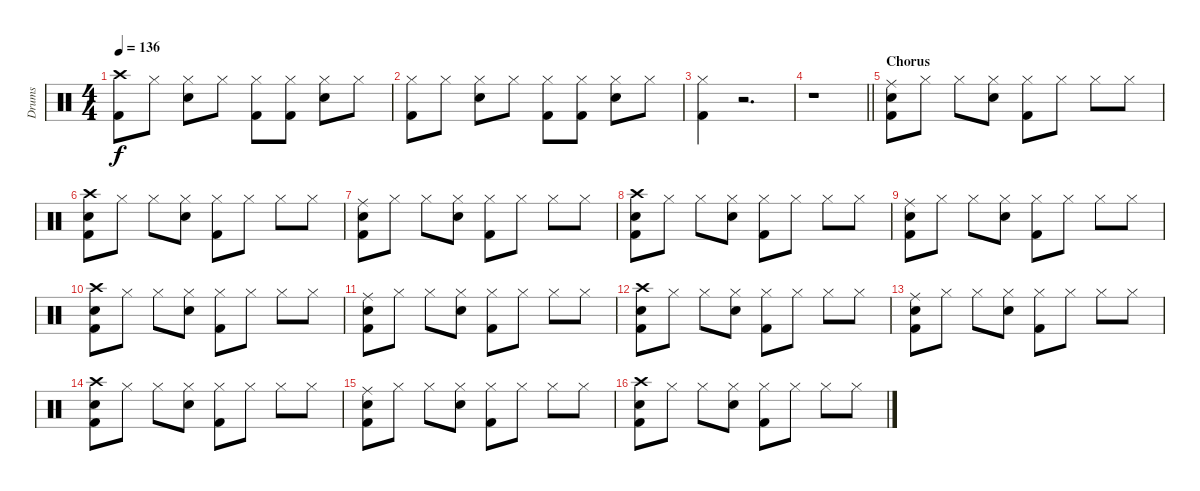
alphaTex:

\track ("Drums" "Drums") {instrument percussion}
\staff {score}
\articulation defaults
\ts (4 4)
\tempo 136
\clef neutral
\ks c
("Crash high (hit)" "Kick (hit) 2").8{dy f} "Hi-Hat (closed)".8 ("Hi-Hat (closed)" "Electric Snare (hit)").8 "Hi-Hat (closed)".8 ("Hi-Hat (closed)" "Kick (hit) 2").8 ("Hi-Hat (closed)" "Kick (hit) 2").8 ("Hi-Hat (closed)" "Electric Snare (hit)").8 "Hi-Hat (closed)".8 |
("Hi-Hat (closed)" "Kick (hit) 2").8 "Hi-Hat (closed)".8 ("Hi-Hat (closed)" "Electric Snare (hit)").8 "Hi-Hat (closed)".8 ("Hi-Hat (closed)" "Kick (hit) 2").8 ("Hi-Hat (closed)" "Kick (hit) 2").8 ("Hi-Hat (closed)" "Electric Snare (hit)").8 "Hi-Hat (closed)".8 |
("Hi-Hat (closed)" "Kick (hit) 2").4 r.2{d} |
\barLineRight lightlight
r.1 |
\section ("" "Chorus")
("Ride (middle)" "Electric Snare (hit)" "Kick (hit) 2").8 "Hi-Hat (closed)".8 "Hi-Hat (closed)".8 ("Hi-Hat (closed)" "Electric Snare (hit)").8 ("Hi-Hat (closed)" "Kick (hit) 2").8 "Hi-Hat (closed)".8 "Hi-Hat (closed)".8 "Hi-Hat (closed)".8 |
("Crash high (hit)" "Electric Snare (hit)" "Kick (hit) 2").8 "Hi-Hat (closed)".8 "Hi-Hat (closed)".8 ("Hi-Hat (closed)" "Electric Snare (hit)").8 ("Hi-Hat (closed)" "Kick (hit) 2").8 "Hi-Hat (closed)".8 "Hi-Hat (closed)".8 "Hi-Hat (closed)".8 |
("Ride (middle)" "Electric Snare (hit)" "Kick (hit) 2").8 "Hi-Hat (closed)".8 "Hi-Hat (closed)".8 ("Hi-Hat (closed)" "Electric Snare (hit)").8 ("Hi-Hat (closed)" "Kick (hit) 2").8 "Hi-Hat (closed)".8 "Hi-Hat (closed)".8 "Hi-Hat (closed)".8 |
("Crash high (hit)" "Electric Snare (hit)" "Kick (hit) 2").8 "Hi-Hat (closed)".8 "Hi-Hat (closed)".8 ("Hi-Hat (closed)" "Electric Snare (hit)").8 ("Hi-Hat (closed)" "Kick (hit) 2").8 "Hi-Hat (closed)".8 "Hi-Hat (closed)".8 "Hi-Hat (closed)".8 |
("Ride (middle)" "Electric Snare (hit)" "Kick (hit) 2").8 "Hi-Hat (closed)".8 "Hi-Hat (closed)".8 ("Hi-Hat (closed)" "Electric Snare (hit)").8 ("Hi-Hat (closed)" "Kick (hit) 2").8 "Hi-Hat (closed)".8 "Hi-Hat (closed)".8 "Hi-Hat (closed)".8 |
("Crash high (hit)" "Electric Snare (hit)" "Kick (hit) 2").8 "Hi-Hat (closed)".8 "Hi-Hat (closed)".8 ("Hi-Hat (closed)" "Electric Snare (hit)").8 ("Hi-Hat (closed)" "Kick (hit) 2").8 "Hi-Hat (closed)".8 "Hi-Hat (closed)".8 "Hi-Hat (closed)".8 |
("Ride (middle)" "Electric Snare (hit)" "Kick (hit) 2").8 "Hi-Hat (closed)".8 "Hi-Hat (closed)".8 ("Hi-Hat (closed)" "Electric Snare (hit)").8 ("Hi-Hat (closed)" "Kick (hit) 2").8 "Hi-Hat (closed)".8 "Hi-Hat (closed)".8 "Hi-Hat (closed)".8 |
("Crash high (hit)" "Electric Snare (hit)" "Kick (hit) 2").8 "Hi-Hat (closed)".8 "Hi-Hat (closed)".8 ("Hi-Hat (closed)" "Electric Snare (hit)").8 ("Hi-Hat (closed)" "Kick (hit) 2").8 "Hi-Hat (closed)".8 "Hi-Hat (closed)".8 "Hi-Hat (closed)".8 |
("Ride (middle)" "Electric Snare (hit)" "Kick (hit) 2").8 "Hi-Hat (closed)".8 "Hi-Hat (closed)".8 ("Hi-Hat (closed)" "Electric Snare (hit)").8 ("Hi-Hat (closed)" "Kick (hit) 2").8 "Hi-Hat (closed)".8 "Hi-Hat (closed)".8 "Hi-Hat (closed)".8 |
("Crash high (hit)" "Electric Snare (hit)" "Kick (hit) 2").8 "Hi-Hat (closed)".8 "Hi-Hat (closed)".8 ("Hi-Hat (closed)" "Electric Snare (hit)").8 ("Hi-Hat (closed)" "Kick (hit) 2").8 "Hi-Hat (closed)".8 "Hi-Hat (closed)".8 "Hi-Hat (closed)".8 |
("Ride (middle)" "Electric Snare (hit)" "Kick (hit) 2").8 "Hi-Hat (closed)".8 "Hi-Hat (closed)".8 ("Hi-Hat (closed)" "Electric Snare (hit)").8 ("Hi-Hat (closed)" "Kick (hit) 2").8 "Hi-Hat (closed)".8 "Hi-Hat (closed)".8 "Hi-Hat (closed)".8 |
("Crash high (hit)" "Electric Snare (hit)" "Kick (hit) 2").8 "Hi-Hat (closed)".8 "Hi-Hat (closed)".8 ("Hi-Hat (closed)" "Electric Snare (hit)").8 ("Hi-Hat (closed)" "Kick (hit) 2").8 "Hi-Hat (closed)".8 "Hi-Hat (closed)".8 "Hi-Hat (closed)".8
